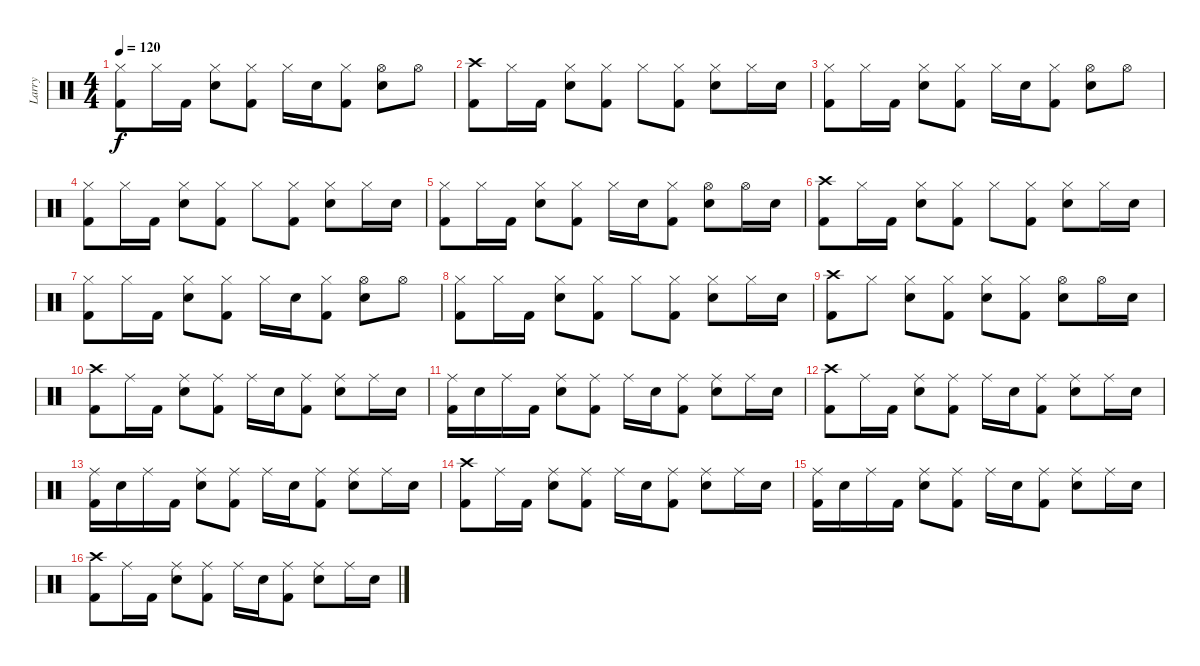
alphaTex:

\track ("Larry" "Larry") {instrument percussion}
\staff {score}
\articulation defaults
\ts (4 4)
\tempo 120
\clef neutral
\ks c
("Hi-Hat (closed)" "Kick (hit) 2").8{dy f} "Hi-Hat (closed)".16 "Kick (hit) 2".16 ("Hi-Hat (closed)" "Snare (hit) 2").8 ("Hi-Hat (closed)" "Kick (hit) 2").8 "Hi-Hat (closed)".16 "Snare (hit) 2".16 ("Hi-Hat (closed)" "Kick (hit) 2").8 ("Hi-Hat (open)" "Snare (hit) 2").8 "Hi-Hat (open)".8 |
("Crash high (hit)" "Kick (hit) 2").8 "Hi-Hat (closed)".16 "Kick (hit) 2".16 ("Hi-Hat (closed)" "Snare (hit) 2").8 ("Hi-Hat (closed)" "Kick (hit) 2").8 "Hi-Hat (closed)".8 ("Hi-Hat (closed)" "Kick (hit) 2").8 ("Hi-Hat (closed)" "Snare (hit) 2").8 "Hi-Hat (closed)".16 "Snare (hit) 2".16 |
("Hi-Hat (closed)" "Kick (hit) 2").8 "Hi-Hat (closed)".16 "Kick (hit) 2".16 ("Hi-Hat (closed)" "Snare (hit) 2").8 ("Hi-Hat (closed)" "Kick (hit) 2").8 "Hi-Hat (closed)".16 "Snare (hit) 2".16 ("Hi-Hat (closed)" "Kick (hit) 2").8 ("Hi-Hat (open)" "Snare (hit) 2").8 "Hi-Hat (open)".8 |
("Hi-Hat (closed)" "Kick (hit) 2").8 "Hi-Hat (closed)".16 "Kick (hit) 2".16 ("Hi-Hat (closed)" "Snare (hit) 2").8 ("Hi-Hat (closed)" "Kick (hit) 2").8 "Hi-Hat (closed)".8 ("Hi-Hat (closed)" "Kick (hit) 2").8 ("Hi-Hat (closed)" "Snare (hit) 2").8 "Hi-Hat (closed)".16 "Snare (hit) 2".16 |
("Hi-Hat (closed)" "Kick (hit) 2").8 "Hi-Hat (closed)".16 "Kick (hit) 2".16 ("Hi-Hat (closed)" "Snare (hit) 2").8 ("Hi-Hat (closed)" "Kick (hit) 2").8 "Hi-Hat (closed)".16 "Snare (hit) 2".16 ("Hi-Hat (closed)" "Kick (hit) 2").8 ("Hi-Hat (open)" "Snare (hit) 2").8 "Hi-Hat (open)".16 "Snare (hit) 2".16 |
("Crash high (hit)" "Kick (hit) 2").8 "Hi-Hat (closed)".16 "Kick (hit) 2".16 ("Hi-Hat (closed)" "Snare (hit) 2").8 ("Hi-Hat (closed)" "Kick (hit) 2").8 "Hi-Hat (closed)".8 ("Hi-Hat (closed)" "Kick (hit) 2").8 ("Hi-Hat (closed)" "Snare (hit) 2").8 "Hi-Hat (closed)".16 "Snare (hit) 2".16 |
("Hi-Hat (closed)" "Kick (hit) 2").8 "Hi-Hat (closed)".16 "Kick (hit) 2".16 ("Hi-Hat (closed)" "Snare (hit) 2").8 ("Hi-Hat (closed)" "Kick (hit) 2").8 "Hi-Hat (closed)".16 "Snare (hit) 2".16 ("Hi-Hat (closed)" "Kick (hit) 2").8 ("Hi-Hat (open)" "Snare (hit) 2").8 "Hi-Hat (open)".8 |
("Hi-Hat (closed)" "Kick (hit) 2").8 "Hi-Hat (closed)".16 "Kick (hit) 2".16 ("Hi-Hat (closed)" "Snare (hit) 2").8 ("Hi-Hat (closed)" "Kick (hit) 2").8 "Hi-Hat (closed)".8 ("Hi-Hat (closed)" "Kick (hit) 2").8 ("Hi-Hat (closed)" "Snare (hit) 2").8 "Hi-Hat (closed)".16 "Snare (hit) 2".16 |
("Crash high (hit)" "Kick (hit) 2").8 "Hi-Hat (closed)".8 ("Hi-Hat (closed)" "Snare (hit) 2").8 ("Hi-Hat (closed)" "Kick (hit) 2").8 ("Hi-Hat (closed)" "Snare (hit) 2").8 ("Hi-Hat (closed)" "Kick (hit) 2").8 ("Hi-Hat (open)" "Snare (hit) 2").8 "Hi-Hat (open)".16 "Snare (hit) 2".16 |
("Crash high (hit)" "Kick (hit) 2").8 "Ride (middle)".16 "Kick (hit) 2".16 ("Ride (middle)" "Snare (hit) 2").8 ("Ride (middle)" "Kick (hit) 2").8 "Ride (middle)".16 "Snare (hit) 2".16 ("Ride (middle)" "Kick (hit) 2").8 ("Ride (middle)" "Snare (hit) 2").8 "Ride (middle)".16 "Snare (hit) 2".16 |
("Ride (middle)" "Kick (hit) 2").16 "Snare (hit) 2".16 "Ride (middle)".16 "Kick (hit) 2".16 ("Ride (middle)" "Snare (hit) 2").8 ("Ride (middle)" "Kick (hit) 2").8 "Ride (middle)".16 "Snare (hit) 2".16 ("Ride (middle)" "Kick (hit) 2").8 ("Ride (middle)" "Snare (hit) 2").8 "Ride (middle)".16 "Snare (hit) 2".16 |
("Crash high (hit)" "Kick (hit) 2").8 "Ride (middle)".16 "Kick (hit) 2".16 ("Ride (middle)" "Snare (hit) 2").8 ("Ride (middle)" "Kick (hit) 2").8 "Ride (middle)".16 "Snare (hit) 2".16 ("Ride (middle)" "Kick (hit) 2").8 ("Ride (middle)" "Snare (hit) 2").8 "Ride (middle)".16 "Snare (hit) 2".16 |
("Ride (middle)" "Kick (hit) 2").16 "Snare (hit) 2".16 "Ride (middle)".16 "Kick (hit) 2".16 ("Ride (middle)" "Snare (hit) 2").8 ("Ride (middle)" "Kick (hit) 2").8 "Ride (middle)".16 "Snare (hit) 2".16 ("Ride (middle)" "Kick (hit) 2").8 ("Ride (middle)" "Snare (hit) 2").8 "Ride (middle)".16 "Snare (hit) 2".16 |
("Crash high (hit)" "Kick (hit) 2").8 "Ride (middle)".16 "Kick (hit) 2".16 ("Ride (middle)" "Snare (hit) 2").8 ("Ride (middle)" "Kick (hit) 2").8 "Ride (middle)".16 "Snare (hit) 2".16 ("Ride (middle)" "Kick (hit) 2").8 ("Ride (middle)" "Snare (hit) 2").8 "Ride (middle)".16 "Snare (hit) 2".16 |
("Ride (middle)" "Kick (hit) 2").16 "Snare (hit) 2".16 "Ride (middle)".16 "Kick (hit) 2".16 ("Ride (middle)" "Snare (hit) 2").8 ("Ride (middle)" "Kick (hit) 2").8 "Ride (middle)".16 "Snare (hit) 2".16 ("Ride (middle)" "Kick (hit) 2").8 ("Ride (middle)" "Snare (hit) 2").8 "Ride (middle)".16 "Snare (hit) 2".16 |
("Crash high (hit)" "Kick (hit) 2").8 "Ride (middle)".16 "Kick (hit) 2".16 ("Ride (middle)" "Snare (hit) 2").8 ("Ride (middle)" "Kick (hit) 2").8 "Ride (middle)".16 "Snare (hit) 2".16 ("Ride (middle)" "Kick (hit) 2").8 ("Ride (middle)" "Snare (hit) 2").8 "Ride (middle)".16 "Snare (hit) 2".16
